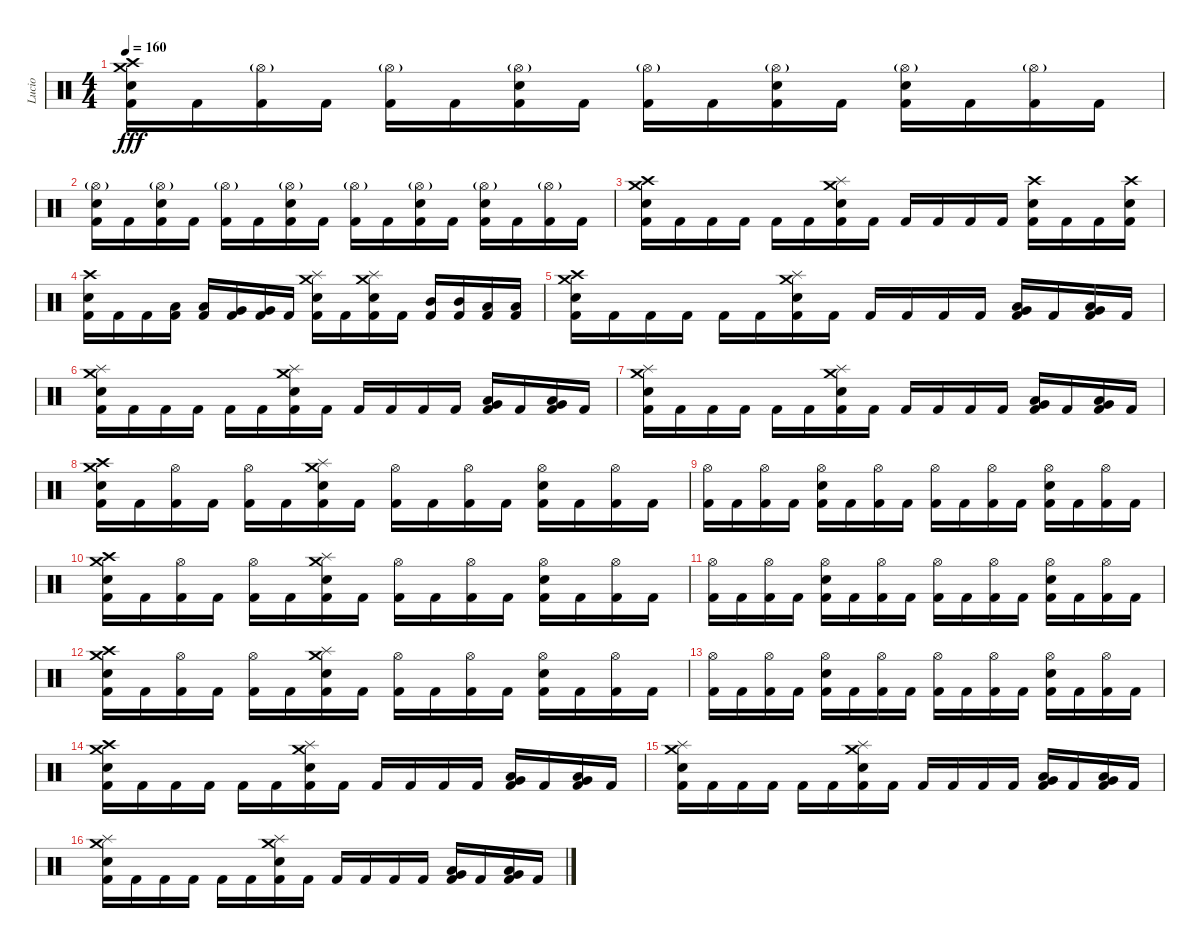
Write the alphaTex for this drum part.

\track ("Lucio" "Lucio") {instrument percussion}
\staff {score}
\articulation defaults
\ts (4 4)
\tempo 160
\clef neutral
\ks c
("Crash medium (hit)" "Crash high (hit)" "Electric Snare (hit)" "Kick (hit) 2").16{dy fff} "Kick (hit) 2".16 ("Hi-Hat (open)"{g} "Kick (hit) 2").16 "Kick (hit) 2".16 ("Hi-Hat (open)"{g} "Kick (hit) 2").16 "Kick (hit) 2".16 ("Hi-Hat (open)"{g} "Electric Snare (hit)" "Kick (hit) 2").16 "Kick (hit) 2".16 ("Hi-Hat (open)"{g} "Kick (hit) 2").16 "Kick (hit) 2".16 ("Hi-Hat (open)"{g} "Electric Snare (hit)" "Kick (hit) 2").16 "Kick (hit) 2".16 ("Hi-Hat (open)"{g} "Electric Snare (hit)" "Kick (hit) 2").16 "Kick (hit) 2".16 ("Hi-Hat (open)"{g} "Kick (hit) 2").16 "Kick (hit) 2".16 |
("Hi-Hat (open)"{g} "Electric Snare (hit)" "Kick (hit) 2").16 "Kick (hit) 2".16 ("Hi-Hat (open)"{g} "Electric Snare (hit)" "Kick (hit) 2").16 "Kick (hit) 2".16 ("Hi-Hat (open)"{g} "Kick (hit) 2").16 "Kick (hit) 2".16 ("Hi-Hat (open)"{g} "Electric Snare (hit)" "Kick (hit) 2").16 "Kick (hit) 2".16 ("Hi-Hat (open)"{g} "Kick (hit) 2").16 "Kick (hit) 2".16 ("Hi-Hat (open)"{g} "Electric Snare (hit)" "Kick (hit) 2").16 "Kick (hit) 2".16 ("Hi-Hat (open)"{g} "Electric Snare (hit)" "Kick (hit) 2").16 "Kick (hit) 2".16 ("Hi-Hat (open)"{g} "Kick (hit) 2").16 "Kick (hit) 2".16 |
("Crash medium (hit)" "Crash high (hit)" "Electric Snare (hit)" "Kick (hit) 2").16 "Kick (hit) 2".16 "Kick (hit) 2".16 "Kick (hit) 2".16 "Kick (hit) 2".16 "Kick (hit) 2".16 ("Crash medium (hit)" "Splash (hit)" "Electric Snare (hit)" "Kick (hit) 2").16 "Kick (hit) 2".16 "Kick (hit) 2".16 "Kick (hit) 2".16 "Kick (hit) 2".16 "Kick (hit) 2".16 ("Crash high (hit)" "Electric Snare (hit)" "Kick (hit) 2").16 "Kick (hit) 2".16 "Kick (hit) 2".16 ("Crash high (hit)" "Electric Snare (hit)" "Kick (hit) 2").16 |
("Crash high (hit)" "Electric Snare (hit)" "Kick (hit) 2").16 "Kick (hit) 2".16 "Kick (hit) 2".16 ("Low Tom (hit)" "Kick (hit) 2").16 ("Low Tom (hit)" "Kick (hit) 2").16 ("Very Low Tom (hit)" "Kick (hit) 2").16 ("Very Low Tom (hit)" "Kick (hit) 2").16 "Kick (hit) 2".16 ("Crash medium (hit)" "Splash (hit)" "Electric Snare (hit)" "Kick (hit) 2").16 "Kick (hit) 2".16 ("Crash medium (hit)" "Splash (hit)" "Electric Snare (hit)" "Kick (hit) 2").16 "Kick (hit) 2".16 ("Mid Tom (hit)" "Kick (hit) 2").16 ("Mid Tom (hit)" "Kick (hit) 2").16 ("Low Tom (hit)" "Kick (hit) 2").16 ("Low Tom (hit)" "Kick (hit) 2").16 |
("Crash medium (hit)" "Crash high (hit)" "Electric Snare (hit)" "Kick (hit) 2").16 "Kick (hit) 2".16 "Kick (hit) 2".16 "Kick (hit) 2".16 "Kick (hit) 2".16 "Kick (hit) 2".16 ("Crash medium (hit)" "Splash (hit)" "Electric Snare (hit)" "Kick (hit) 2").16 "Kick (hit) 2".16 "Kick (hit) 2".16 "Kick (hit) 2".16 "Kick (hit) 2".16 "Kick (hit) 2".16 ("Low Tom (hit)" "Very Low Tom (hit)" "Kick (hit) 2").16 "Kick (hit) 2".16 ("Low Tom (hit)" "Very Low Tom (hit)" "Kick (hit) 2").16 "Kick (hit) 2".16 |
("Crash medium (hit)" "Splash (hit)" "Electric Snare (hit)" "Kick (hit) 2").16 "Kick (hit) 2".16 "Kick (hit) 2".16 "Kick (hit) 2".16 "Kick (hit) 2".16 "Kick (hit) 2".16 ("Crash medium (hit)" "Splash (hit)" "Electric Snare (hit)" "Kick (hit) 2").16 "Kick (hit) 2".16 "Kick (hit) 2".16 "Kick (hit) 2".16 "Kick (hit) 2".16 "Kick (hit) 2".16 ("Low Tom (hit)" "Very Low Tom (hit)" "Kick (hit) 2").16 "Kick (hit) 2".16 ("Low Tom (hit)" "Very Low Tom (hit)" "Kick (hit) 2").16 "Kick (hit) 2".16 |
("Crash medium (hit)" "Splash (hit)" "Electric Snare (hit)" "Kick (hit) 2").16 "Kick (hit) 2".16 "Kick (hit) 2".16 "Kick (hit) 2".16 "Kick (hit) 2".16 "Kick (hit) 2".16 ("Crash medium (hit)" "Splash (hit)" "Electric Snare (hit)" "Kick (hit) 2").16 "Kick (hit) 2".16 "Kick (hit) 2".16 "Kick (hit) 2".16 "Kick (hit) 2".16 "Kick (hit) 2".16 ("Low Tom (hit)" "Very Low Tom (hit)" "Kick (hit) 2").16 "Kick (hit) 2".16 ("Low Tom (hit)" "Very Low Tom (hit)" "Kick (hit) 2").16 "Kick (hit) 2".16 |
("Crash medium (hit)" "Crash high (hit)" "Electric Snare (hit)" "Kick (hit) 2").16 "Kick (hit) 2".16 ("Hi-Hat (open)" "Kick (hit) 2").16 "Kick (hit) 2".16 ("Hi-Hat (open)" "Kick (hit) 2").16 "Kick (hit) 2".16 ("Crash medium (hit)" "Splash (hit)" "Electric Snare (hit)" "Kick (hit) 2").16 "Kick (hit) 2".16 ("Hi-Hat (open)" "Kick (hit) 2").16 "Kick (hit) 2".16 ("Hi-Hat (open)" "Kick (hit) 2").16 "Kick (hit) 2".16 ("Hi-Hat (open)" "Electric Snare (hit)" "Kick (hit) 2").16 "Kick (hit) 2".16 ("Hi-Hat (open)" "Kick (hit) 2").16 "Kick (hit) 2".16 |
("Hi-Hat (open)" "Kick (hit) 2").16 "Kick (hit) 2".16 ("Hi-Hat (open)" "Kick (hit) 2").16 "Kick (hit) 2".16 ("Hi-Hat (open)" "Electric Snare (hit)" "Kick (hit) 2").16 "Kick (hit) 2".16 ("Hi-Hat (open)" "Kick (hit) 2").16 "Kick (hit) 2".16 ("Hi-Hat (open)" "Kick (hit) 2").16 "Kick (hit) 2".16 ("Hi-Hat (open)" "Kick (hit) 2").16 "Kick (hit) 2".16 ("Hi-Hat (open)" "Electric Snare (hit)" "Kick (hit) 2").16 "Kick (hit) 2".16 ("Hi-Hat (open)" "Kick (hit) 2").16 "Kick (hit) 2".16 |
("Crash medium (hit)" "Crash high (hit)" "Electric Snare (hit)" "Kick (hit) 2").16 "Kick (hit) 2".16 ("Hi-Hat (open)" "Kick (hit) 2").16 "Kick (hit) 2".16 ("Hi-Hat (open)" "Kick (hit) 2").16 "Kick (hit) 2".16 ("Crash medium (hit)" "Splash (hit)" "Electric Snare (hit)" "Kick (hit) 2").16 "Kick (hit) 2".16 ("Hi-Hat (open)" "Kick (hit) 2").16 "Kick (hit) 2".16 ("Hi-Hat (open)" "Kick (hit) 2").16 "Kick (hit) 2".16 ("Hi-Hat (open)" "Electric Snare (hit)" "Kick (hit) 2").16 "Kick (hit) 2".16 ("Hi-Hat (open)" "Kick (hit) 2").16 "Kick (hit) 2".16 |
("Hi-Hat (open)" "Kick (hit) 2").16 "Kick (hit) 2".16 ("Hi-Hat (open)" "Kick (hit) 2").16 "Kick (hit) 2".16 ("Hi-Hat (open)" "Electric Snare (hit)" "Kick (hit) 2").16 "Kick (hit) 2".16 ("Hi-Hat (open)" "Kick (hit) 2").16 "Kick (hit) 2".16 ("Hi-Hat (open)" "Kick (hit) 2").16 "Kick (hit) 2".16 ("Hi-Hat (open)" "Kick (hit) 2").16 "Kick (hit) 2".16 ("Hi-Hat (open)" "Electric Snare (hit)" "Kick (hit) 2").16 "Kick (hit) 2".16 ("Hi-Hat (open)" "Kick (hit) 2").16 "Kick (hit) 2".16 |
("Crash medium (hit)" "Crash high (hit)" "Electric Snare (hit)" "Kick (hit) 2").16 "Kick (hit) 2".16 ("Hi-Hat (open)" "Kick (hit) 2").16 "Kick (hit) 2".16 ("Hi-Hat (open)" "Kick (hit) 2").16 "Kick (hit) 2".16 ("Crash medium (hit)" "Splash (hit)" "Electric Snare (hit)" "Kick (hit) 2").16 "Kick (hit) 2".16 ("Hi-Hat (open)" "Kick (hit) 2").16 "Kick (hit) 2".16 ("Hi-Hat (open)" "Kick (hit) 2").16 "Kick (hit) 2".16 ("Hi-Hat (open)" "Electric Snare (hit)" "Kick (hit) 2").16 "Kick (hit) 2".16 ("Hi-Hat (open)" "Kick (hit) 2").16 "Kick (hit) 2".16 |
("Hi-Hat (open)" "Kick (hit) 2").16 "Kick (hit) 2".16 ("Hi-Hat (open)" "Kick (hit) 2").16 "Kick (hit) 2".16 ("Hi-Hat (open)" "Electric Snare (hit)" "Kick (hit) 2").16 "Kick (hit) 2".16 ("Hi-Hat (open)" "Kick (hit) 2").16 "Kick (hit) 2".16 ("Hi-Hat (open)" "Kick (hit) 2").16 "Kick (hit) 2".16 ("Hi-Hat (open)" "Kick (hit) 2").16 "Kick (hit) 2".16 ("Hi-Hat (open)" "Electric Snare (hit)" "Kick (hit) 2").16 "Kick (hit) 2".16 ("Hi-Hat (open)" "Kick (hit) 2").16 "Kick (hit) 2".16 |
("Crash medium (hit)" "Crash high (hit)" "Electric Snare (hit)" "Kick (hit) 2").16 "Kick (hit) 2".16 "Kick (hit) 2".16 "Kick (hit) 2".16 "Kick (hit) 2".16 "Kick (hit) 2".16 ("Crash medium (hit)" "Splash (hit)" "Electric Snare (hit)" "Kick (hit) 2").16 "Kick (hit) 2".16 "Kick (hit) 2".16 "Kick (hit) 2".16 "Kick (hit) 2".16 "Kick (hit) 2".16 ("Low Tom (hit)" "Very Low Tom (hit)" "Kick (hit) 2").16 "Kick (hit) 2".16 ("Low Tom (hit)" "Very Low Tom (hit)" "Kick (hit) 2").16 "Kick (hit) 2".16 |
("Crash medium (hit)" "Splash (hit)" "Electric Snare (hit)" "Kick (hit) 2").16 "Kick (hit) 2".16 "Kick (hit) 2".16 "Kick (hit) 2".16 "Kick (hit) 2".16 "Kick (hit) 2".16 ("Crash medium (hit)" "Splash (hit)" "Electric Snare (hit)" "Kick (hit) 2").16 "Kick (hit) 2".16 "Kick (hit) 2".16 "Kick (hit) 2".16 "Kick (hit) 2".16 "Kick (hit) 2".16 ("Low Tom (hit)" "Very Low Tom (hit)" "Kick (hit) 2").16 "Kick (hit) 2".16 ("Low Tom (hit)" "Very Low Tom (hit)" "Kick (hit) 2").16 "Kick (hit) 2".16 |
("Crash medium (hit)" "Splash (hit)" "Electric Snare (hit)" "Kick (hit) 2").16 "Kick (hit) 2".16 "Kick (hit) 2".16 "Kick (hit) 2".16 "Kick (hit) 2".16 "Kick (hit) 2".16 ("Crash medium (hit)" "Splash (hit)" "Electric Snare (hit)" "Kick (hit) 2").16 "Kick (hit) 2".16 "Kick (hit) 2".16 "Kick (hit) 2".16 "Kick (hit) 2".16 "Kick (hit) 2".16 ("Low Tom (hit)" "Very Low Tom (hit)" "Kick (hit) 2").16 "Kick (hit) 2".16 ("Low Tom (hit)" "Very Low Tom (hit)" "Kick (hit) 2").16 "Kick (hit) 2".16
